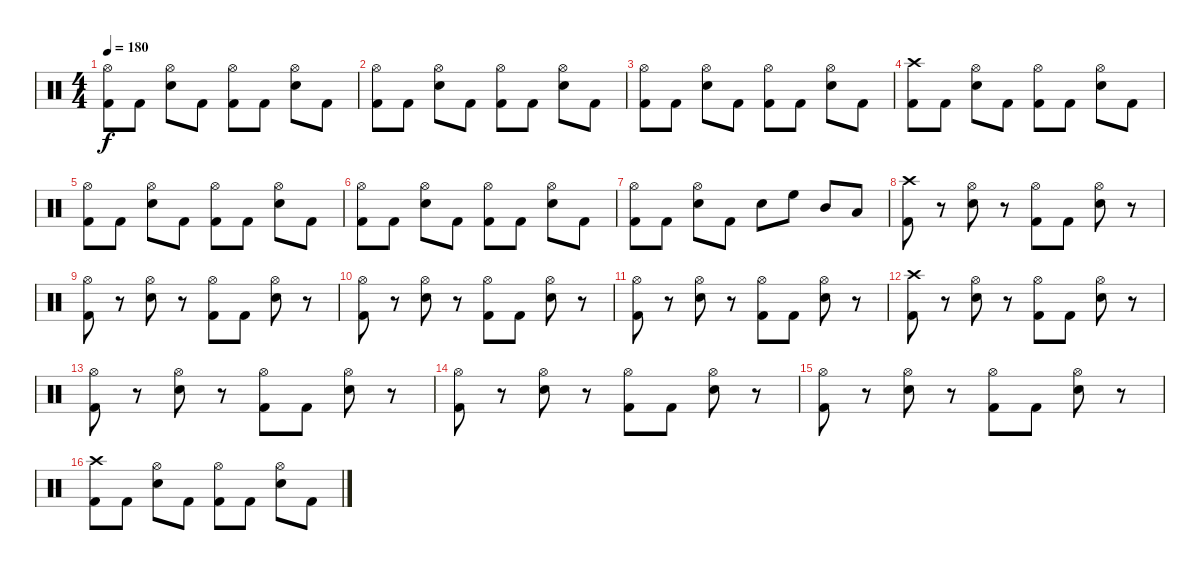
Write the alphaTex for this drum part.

\track "" {instrument percussion}
\staff {score}
\articulation defaults
\ts (4 4)
\tempo 180
\clef neutral
\ks c
("Hi-Hat (open)" "Kick (hit) 2").8{dy f} "Kick (hit) 2".8 ("Hi-Hat (open)" "Electric Snare (hit)").8 "Kick (hit) 2".8 ("Hi-Hat (open)" "Kick (hit) 2").8 "Kick (hit) 2".8 ("Hi-Hat (open)" "Electric Snare (hit)").8 "Kick (hit) 2".8 |
("Hi-Hat (open)" "Kick (hit) 2").8 "Kick (hit) 2".8 ("Hi-Hat (open)" "Electric Snare (hit)").8 "Kick (hit) 2".8 ("Hi-Hat (open)" "Kick (hit) 2").8 "Kick (hit) 2".8 ("Hi-Hat (open)" "Electric Snare (hit)").8 "Kick (hit) 2".8 |
("Hi-Hat (open)" "Kick (hit) 2").8 "Kick (hit) 2".8 ("Hi-Hat (open)" "Electric Snare (hit)").8 "Kick (hit) 2".8 ("Hi-Hat (open)" "Kick (hit) 2").8 "Kick (hit) 2".8 ("Hi-Hat (open)" "Electric Snare (hit)").8 "Kick (hit) 2".8 |
("Crash high (hit)" "Kick (hit) 2").8 "Kick (hit) 2".8 ("Hi-Hat (open)" "Electric Snare (hit)").8 "Kick (hit) 2".8 ("Hi-Hat (open)" "Kick (hit) 2").8 "Kick (hit) 2".8 ("Hi-Hat (open)" "Electric Snare (hit)").8 "Kick (hit) 2".8 |
("Hi-Hat (open)" "Kick (hit) 2").8 "Kick (hit) 2".8 ("Hi-Hat (open)" "Electric Snare (hit)").8 "Kick (hit) 2".8 ("Hi-Hat (open)" "Kick (hit) 2").8 "Kick (hit) 2".8 ("Hi-Hat (open)" "Electric Snare (hit)").8 "Kick (hit) 2".8 |
("Hi-Hat (open)" "Kick (hit) 2").8 "Kick (hit) 2".8 ("Hi-Hat (open)" "Electric Snare (hit)").8 "Kick (hit) 2".8 ("Hi-Hat (open)" "Kick (hit) 2").8 "Kick (hit) 2".8 ("Hi-Hat (open)" "Electric Snare (hit)").8 "Kick (hit) 2".8 |
("Hi-Hat (open)" "Kick (hit) 2").8 "Kick (hit) 2".8 ("Hi-Hat (open)" "Electric Snare (hit)").8 "Kick (hit) 2".8 "Electric Snare (hit)".8 "High Floor Tom (hit)".8 "Mid Tom (hit)".8 "Low Tom (hit)".8 |
("Crash high (hit)" "Kick (hit) 2").8 r.8 ("Hi-Hat (open)" "Electric Snare (hit)").8 r.8 ("Hi-Hat (open)" "Kick (hit) 2").8 "Kick (hit) 2".8 ("Hi-Hat (open)" "Electric Snare (hit)").8 r.8 |
("Hi-Hat (open)" "Kick (hit) 2").8 r.8 ("Hi-Hat (open)" "Electric Snare (hit)").8 r.8 ("Hi-Hat (open)" "Kick (hit) 2").8 "Kick (hit) 2".8 ("Hi-Hat (open)" "Electric Snare (hit)").8 r.8 |
("Hi-Hat (open)" "Kick (hit) 2").8 r.8 ("Hi-Hat (open)" "Electric Snare (hit)").8 r.8 ("Hi-Hat (open)" "Kick (hit) 2").8 "Kick (hit) 2".8 ("Hi-Hat (open)" "Electric Snare (hit)").8 r.8 |
("Hi-Hat (open)" "Kick (hit) 2").8 r.8 ("Hi-Hat (open)" "Electric Snare (hit)").8 r.8 ("Hi-Hat (open)" "Kick (hit) 2").8 "Kick (hit) 2".8 ("Hi-Hat (open)" "Electric Snare (hit)").8 r.8 |
("Crash high (hit)" "Kick (hit) 2").8 r.8 ("Hi-Hat (open)" "Electric Snare (hit)").8 r.8 ("Hi-Hat (open)" "Kick (hit) 2").8 "Kick (hit) 2".8 ("Hi-Hat (open)" "Electric Snare (hit)").8 r.8 |
("Hi-Hat (open)" "Kick (hit) 2").8 r.8 ("Hi-Hat (open)" "Electric Snare (hit)").8 r.8 ("Hi-Hat (open)" "Kick (hit) 2").8 "Kick (hit) 2".8 ("Hi-Hat (open)" "Electric Snare (hit)").8 r.8 |
("Hi-Hat (open)" "Kick (hit) 2").8 r.8 ("Hi-Hat (open)" "Electric Snare (hit)").8 r.8 ("Hi-Hat (open)" "Kick (hit) 2").8 "Kick (hit) 2".8 ("Hi-Hat (open)" "Electric Snare (hit)").8 r.8 |
("Hi-Hat (open)" "Kick (hit) 2").8 r.8 ("Hi-Hat (open)" "Electric Snare (hit)").8 r.8 ("Hi-Hat (open)" "Kick (hit) 2").8 "Kick (hit) 2".8 ("Hi-Hat (open)" "Electric Snare (hit)").8 r.8 |
("Crash high (hit)" "Kick (hit) 2").8 "Kick (hit) 2".8 ("Hi-Hat (open)" "Electric Snare (hit)").8 "Kick (hit) 2".8 ("Hi-Hat (open)" "Kick (hit) 2").8 "Kick (hit) 2".8 ("Hi-Hat (open)" "Electric Snare (hit)").8 "Kick (hit) 2".8
